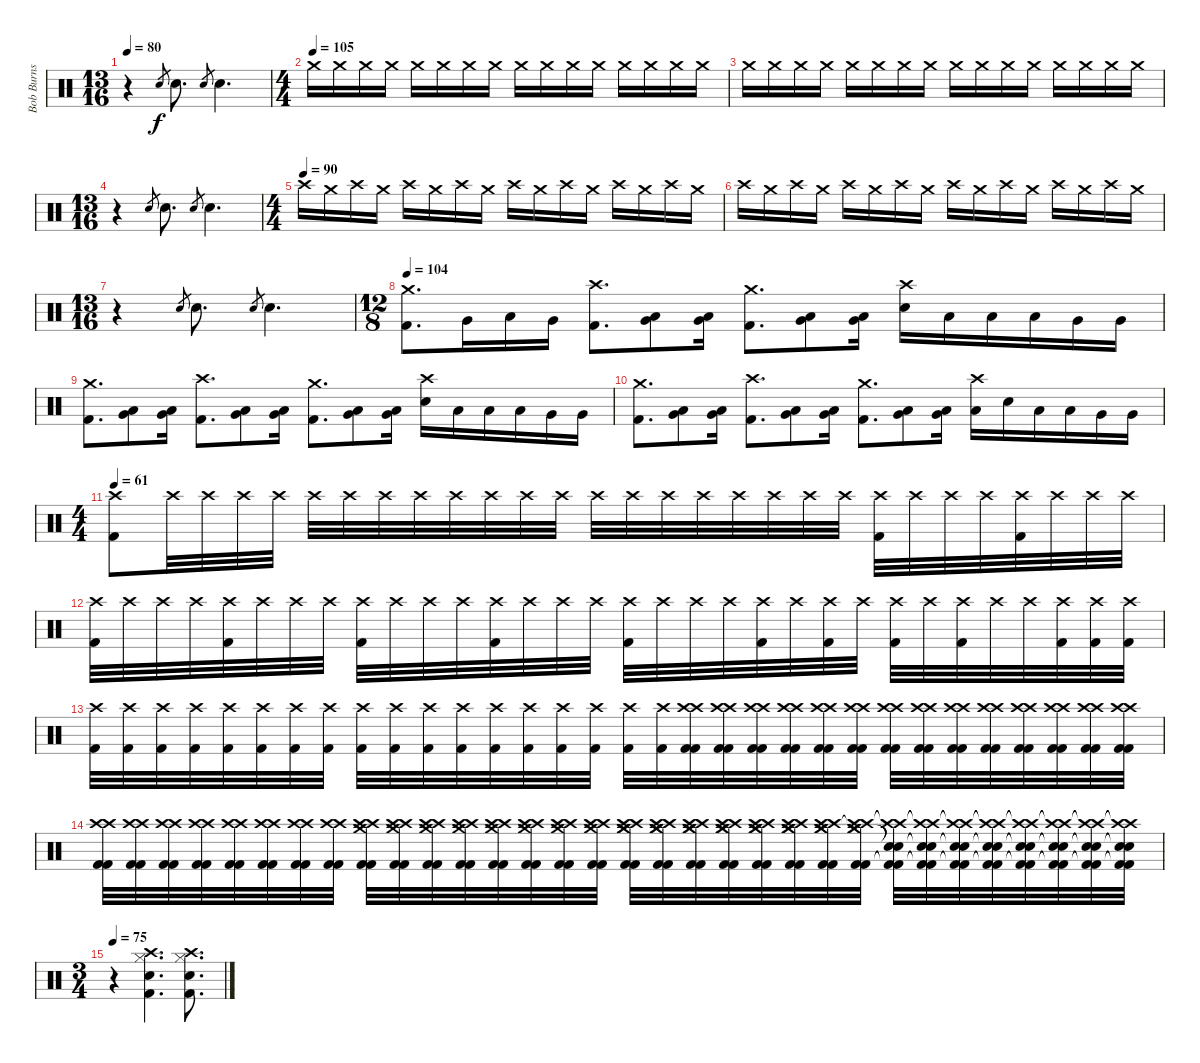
\track ("Bob Burns (Drums)" "Bob Burns ") {instrument percussion}
\staff {score}
\articulation defaults
\ts (13 16)
\tempo 80
\clef neutral
\ks c
r.4{dy f} "Electric Snare (hit)".8{gr} "Electric Snare (hit)".8{d} "Electric Snare (hit)".8{gr} "Electric Snare (hit)".4{d} |
\ts (4 4)
\tempo (105)
"Crash medium (hit)".16 "Crash medium (hit)".16 "Crash medium (hit)".16 "Crash medium (hit)".16 "Crash medium (hit)".16 "Crash medium (hit)".16 "Crash medium (hit)".16 "Crash medium (hit)".16 "Crash medium (hit)".16 "Crash medium (hit)".16 "Crash medium (hit)".16 "Crash medium (hit)".16 "Crash medium (hit)".16 "Crash medium (hit)".16 "Crash medium (hit)".16 "Crash medium (hit)".16 |
"Crash medium (hit)".16 "Crash medium (hit)".16 "Crash medium (hit)".16 "Crash medium (hit)".16 "Crash medium (hit)".16 "Crash medium (hit)".16 "Crash medium (hit)".16 "Crash medium (hit)".16 "Crash medium (hit)".16 "Crash medium (hit)".16 "Crash medium (hit)".16 "Crash medium (hit)".16 "Crash medium (hit)".16 "Crash medium (hit)".16 "Crash medium (hit)".16 "Crash medium (hit)".16 |
\ts (13 16)
r.4 "Electric Snare (hit)".8{gr} "Electric Snare (hit)".8{d} "Electric Snare (hit)".8{gr} "Electric Snare (hit)".4{d} |
\ts (4 4)
\tempo (90)
"Crash high (hit)".16 "Crash medium (hit)".16 "Crash high (hit)".16 "Crash medium (hit)".16 "Crash high (hit)".16 "Crash medium (hit)".16 "Crash high (hit)".16 "Crash medium (hit)".16 "Crash high (hit)".16 "Crash medium (hit)".16 "Crash high (hit)".16 "Crash medium (hit)".16 "Crash high (hit)".16 "Crash medium (hit)".16 "Crash high (hit)".16 "Crash medium (hit)".16 |
"Crash high (hit)".16 "Crash medium (hit)".16 "Crash high (hit)".16 "Crash medium (hit)".16 "Crash high (hit)".16 "Crash medium (hit)".16 "Crash high (hit)".16 "Crash medium (hit)".16 "Crash high (hit)".16 "Crash medium (hit)".16 "Crash high (hit)".16 "Crash medium (hit)".16 "Crash high (hit)".16 "Crash medium (hit)".16 "Crash high (hit)".16 "Crash medium (hit)".16 |
\ts (13 16)
r.4 "Electric Snare (hit)".8{gr} "Electric Snare (hit)".8{d} "Electric Snare (hit)".8{gr} "Electric Snare (hit)".4{d} |
\ts (12 8)
\tempo 104
("Crash medium (hit)" "Kick (hit) 2").8{d} "Very Low Tom (hit)".16 "Low Tom (hit)".16 "Very Low Tom (hit)".16 ("Crash high (hit)" "Kick (hit) 2").8{d} ("Low Tom (hit)" "Very Low Tom (hit)").8 ("Low Tom (hit)" "Very Low Tom (hit)").16 ("Crash medium (hit)" "Kick (hit) 2").8{d} ("Low Tom (hit)" "Very Low Tom (hit)").8 ("Low Tom (hit)" "Very Low Tom (hit)").16 ("Crash high (hit)" "Electric Snare (hit)").16 "Low Tom (hit)".16 "Low Tom (hit)".16 "Low Tom (hit)".16 "Very Low Tom (hit)".16 "Very Low Tom (hit)".16 |
("Crash medium (hit)" "Kick (hit) 2").8{d} ("Low Tom (hit)" "Very Low Tom (hit)").8 ("Low Tom (hit)" "Very Low Tom (hit)").16 ("Crash high (hit)" "Kick (hit) 2").8{d} ("Low Tom (hit)" "Very Low Tom (hit)").8 ("Low Tom (hit)" "Very Low Tom (hit)").16 ("Crash medium (hit)" "Kick (hit) 2").8{d} ("Low Tom (hit)" "Very Low Tom (hit)").8 ("Low Tom (hit)" "Very Low Tom (hit)").16 ("Crash high (hit)" "Electric Snare (hit)").16 "Low Tom (hit)".16 "Low Tom (hit)".16 "Low Tom (hit)".16 "Very Low Tom (hit)".16 "Very Low Tom (hit)".16 |
("Crash medium (hit)" "Kick (hit) 2").8{d} ("Low Tom (hit)" "Very Low Tom (hit)").8 ("Low Tom (hit)" "Very Low Tom (hit)").16 ("Crash high (hit)" "Kick (hit) 2").8{d} ("Low Tom (hit)" "Very Low Tom (hit)").8 ("Low Tom (hit)" "Very Low Tom (hit)").16 ("Crash medium (hit)" "Kick (hit) 2").8{d} ("Low Tom (hit)" "Very Low Tom (hit)").8 ("Low Tom (hit)" "Very Low Tom (hit)").16 ("Crash high (hit)" "Low Tom (hit)").16 "Electric Snare (hit)".16 "Low Tom (hit)".16 "Low Tom (hit)".16 "Very Low Tom (hit)".16 "Very Low Tom (hit)".16 |
\ts (4 4)
\tempo 61
("Crash high (hit)" "Kick (hit) 2").8 "Crash high (hit)".32 "Crash high (hit)".32 "Crash high (hit)".32 "Crash high (hit)".32 "Crash high (hit)".32 "Crash high (hit)".32 "Crash high (hit)".32 "Crash high (hit)".32 "Crash high (hit)".32 "Crash high (hit)".32 "Crash high (hit)".32 "Crash high (hit)".32 "Crash high (hit)".32 "Crash high (hit)".32 "Crash high (hit)".32 "Crash high (hit)".32 "Crash high (hit)".32 "Crash high (hit)".32 "Crash high (hit)".32 "Crash high (hit)".32 ("Crash high (hit)" "Kick (hit) 2").32 "Crash high (hit)".32 "Crash high (hit)".32 "Crash high (hit)".32 ("Crash high (hit)" "Kick (hit) 2").32 "Crash high (hit)".32 "Crash high (hit)".32 "Crash high (hit)".32 |
("Crash high (hit)" "Kick (hit) 2").32 "Crash high (hit)".32 "Crash high (hit)".32 "Crash high (hit)".32 ("Crash high (hit)" "Kick (hit) 2").32 "Crash high (hit)".32 "Crash high (hit)".32 "Crash high (hit)".32 ("Crash high (hit)" "Kick (hit) 2").32 "Crash high (hit)".32 "Crash high (hit)".32 "Crash high (hit)".32 ("Crash high (hit)" "Kick (hit) 2").32 "Crash high (hit)".32 "Crash high (hit)".32 "Crash high (hit)".32 ("Crash high (hit)" "Kick (hit) 2").32 "Crash high (hit)".32 "Crash high (hit)".32 "Crash high (hit)".32 ("Crash high (hit)" "Kick (hit) 2").32 "Crash high (hit)".32 ("Crash high (hit)" "Kick (hit) 2").32 "Crash high (hit)".32 ("Crash high (hit)" "Kick (hit) 2").32 "Crash high (hit)".32 ("Crash high (hit)" "Kick (hit) 2").32 "Crash high (hit)".32 "Crash high (hit)".32 ("Crash high (hit)" "Kick (hit) 2").32 ("Crash high (hit)" "Kick (hit) 2").32 ("Crash high (hit)" "Kick (hit) 2").32 |
("Crash high (hit)" "Kick (hit) 2").32 ("Crash high (hit)" "Kick (hit) 2").32 ("Crash high (hit)" "Kick (hit) 2").32 ("Crash high (hit)" "Kick (hit) 2").32 ("Crash high (hit)" "Kick (hit) 2").32 ("Crash high (hit)" "Kick (hit) 2").32 ("Crash high (hit)" "Kick (hit) 2").32 ("Crash high (hit)" "Kick (hit) 2").32 ("Crash high (hit)" "Kick (hit) 2").32 ("Crash high (hit)" "Kick (hit) 2").32 ("Crash high (hit)" "Kick (hit) 2").32 ("Crash high (hit)" "Kick (hit) 2").32 ("Crash high (hit)" "Kick (hit) 2").32 ("Crash high (hit)" "Kick (hit) 2").32 ("Crash high (hit)" "Kick (hit) 2").32 ("Crash high (hit)" "Kick (hit) 2").32 ("Crash high (hit)" "Kick (hit) 2").32 ("Crash high (hit)" "Kick (hit) 2").32 ("Crash high (hit)" "Crash high (hit)" "Kick (hit) 2" "Kick (hit) 2").32 ("Crash high (hit)" "Crash high (hit)" "Kick (hit) 2" "Kick (hit) 2").32 ("Crash high (hit)" "Crash high (hit)" "Kick (hit) 2" "Kick (hit) 2").32 ("Crash high (hit)" "Crash high (hit)" "Kick (hit) 2" "Kick (hit) 2").32 ("Crash high (hit)" "Crash high (hit)" "Kick (hit) 2" "Kick (hit) 2").32 ("Crash high (hit)" "Crash high (hit)" "Kick (hit) 2" "Kick (hit) 2").32 ("Crash high (hit)" "Crash high (hit)" "Kick (hit) 2" "Kick (hit) 2").32 ("Crash high (hit)" "Crash high (hit)" "Kick (hit) 2" "Kick (hit) 2").32 ("Crash high (hit)" "Crash high (hit)" "Kick (hit) 2" "Kick (hit) 2").32 ("Crash high (hit)" "Crash high (hit)" "Kick (hit) 2" "Kick (hit) 2").32 ("Crash high (hit)" "Crash high (hit)" "Kick (hit) 2" "Kick (hit) 2").32 ("Crash high (hit)" "Crash high (hit)" "Kick (hit) 2" "Kick (hit) 2").32 ("Crash high (hit)" "Crash high (hit)" "Kick (hit) 2" "Kick (hit) 2").32 ("Crash high (hit)" "Crash high (hit)" "Kick (hit) 2" "Kick (hit) 2").32 |
("Crash high (hit)" "Crash high (hit)" "Kick (hit) 2" "Kick (hit) 2").32 ("Crash high (hit)" "Crash high (hit)" "Kick (hit) 2" "Kick (hit) 2").32 ("Crash high (hit)" "Crash high (hit)" "Kick (hit) 2" "Kick (hit) 2").32 ("Crash high (hit)" "Crash high (hit)" "Kick (hit) 2" "Kick (hit) 2").32 ("Crash high (hit)" "Crash high (hit)" "Kick (hit) 2" "Kick (hit) 2").32 ("Crash high (hit)" "Crash high (hit)" "Kick (hit) 2" "Kick (hit) 2").32 ("Crash high (hit)" "Crash high (hit)" "Kick (hit) 2" "Kick (hit) 2").32 ("Crash high (hit)" "Crash high (hit)" "Kick (hit) 2" "Kick (hit) 2").32 ("Crash medium (hit)" "Crash high (hit)" "Crash high (hit)" "Kick (hit) 2" "Kick (hit) 2").32 ("Crash medium (hit)" "Crash high (hit)" "Crash high (hit)" "Kick (hit) 2" "Kick (hit) 2").32 ("Crash medium (hit)" "Crash high (hit)" "Crash high (hit)" "Kick (hit) 2" "Kick (hit) 2").32 ("Crash medium (hit)" "Crash high (hit)" "Crash high (hit)" "Kick (hit) 2" "Kick (hit) 2").32 ("Crash medium (hit)" "Crash high (hit)" "Crash high (hit)" "Kick (hit) 2" "Kick (hit) 2").32 ("Crash medium (hit)" "Crash high (hit)" "Crash high (hit)" "Kick (hit) 2" "Kick (hit) 2").32 ("Crash medium (hit)" "Crash high (hit)" "Crash high (hit)" "Kick (hit) 2" "Kick (hit) 2").32 ("Crash medium (hit)" "Crash high (hit)" "Crash high (hit)" "Kick (hit) 2" "Kick (hit) 2").32 ("Crash medium (hit)" "Crash medium (hit)" "Crash high (hit)" "Crash high (hit)" "Kick (hit) 2" "Kick (hit) 2").32 ("Crash medium (hit)" "Crash medium (hit)" "Crash high (hit)" "Crash high (hit)" "Kick (hit) 2" "Kick (hit) 2").32 ("Crash medium (hit)" "Crash medium (hit)" "Crash high (hit)" "Crash high (hit)" "Kick (hit) 2" "Kick (hit) 2").32 ("Crash medium (hit)" "Crash medium (hit)" "Crash high (hit)" "Crash high (hit)" "Kick (hit) 2" "Kick (hit) 2").32 ("Crash medium (hit)" "Crash medium (hit)" "Crash high (hit)" "Crash high (hit)" "Kick (hit) 2" "Kick (hit) 2").32 ("Crash medium (hit)" "Crash medium (hit)" "Crash high (hit)" "Crash high (hit)" "Kick (hit) 2" "Kick (hit) 2").32 ("Crash medium (hit)" "Crash medium (hit)" "Crash high (hit)" "Crash high (hit)" "Kick (hit) 2" "Kick (hit) 2").32 ("Crash medium (hit)"{t} "Crash medium (hit)" "Crash high (hit)" "Crash high (hit)" "Kick (hit) 2" "Kick (hit) 2").32 ("Snare (hit)"{t} "Snare (hit)"{t} "Crash high (hit)"{t} "Crash high (hit)"{t} "Kick (hit) 2"{t} "Kick (hit) 2"{t}).32 ("Snare (hit)"{t} "Snare (hit)"{t} "Crash high (hit)"{t} "Crash high (hit)"{t} "Kick (hit) 2"{t} "Kick (hit) 2"{t}).32 ("Snare (hit)"{t} "Snare (hit)"{t} "Crash high (hit)"{t} "Crash high (hit)"{t} "Kick (hit) 2"{t} "Kick (hit) 2"{t}).32 ("Snare (hit)"{t} "Snare (hit)"{t} "Crash high (hit)"{t} "Crash high (hit)"{t} "Kick (hit) 2"{t} "Kick (hit) 2"{t}).32 ("Snare (hit)"{t} "Snare (hit)"{t} "Crash high (hit)"{t} "Crash high (hit)"{t} "Kick (hit) 2"{t} "Kick (hit) 2"{t}).32 ("Snare (hit)"{t} "Snare (hit)"{t} "Crash high (hit)"{t} "Crash high (hit)"{t} "Kick (hit) 2"{t} "Kick (hit) 2"{t}).32 ("Snare (hit)"{t} "Snare (hit)"{t} "Crash high (hit)"{t} "Crash high (hit)"{t} "Kick (hit) 2"{t} "Kick (hit) 2"{t}).32 ("Snare (hit)"{t} "Snare (hit)"{t} "Crash high (hit)"{t} "Crash high (hit)"{t} "Kick (hit) 2"{t} "Kick (hit) 2"{t}).32 |
\ts (3 4)
\tempo 75
r.4 ("Hi-Hat (closed)" "Crash high (hit)" "Electric Snare (hit)" "Kick (hit) 2").4{d} ("Hi-Hat (closed)" "Crash high (hit)" "Electric Snare (hit)" "Kick (hit) 2").8{d}
